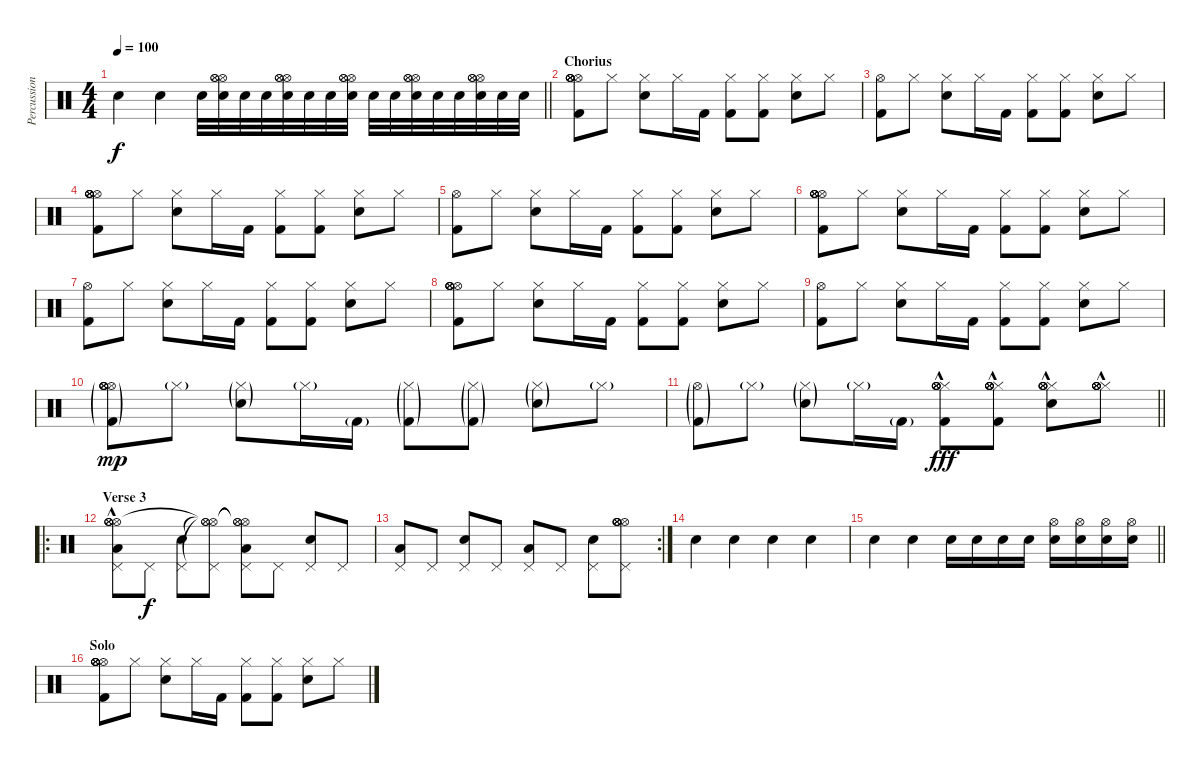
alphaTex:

\track ("Percussion" "Percussion") {instrument percussion}
\staff {score}
\articulation defaults
\ts (4 4)
\tempo 100
\clef neutral
\barLineRight lightlight
\ks c "Electric Snare (hit)".4{dy f} "Electric Snare (hit)".4 "Electric Snare (hit)".32
("Hi-Hat (open)" "Hi-Hat (open)" "Hi-Hat (open)" "Electric Snare (hit)").32 "Electric Snare (hit)".32 "Electric Snare (hit)".32 ("Hi-Hat (open)" "Hi-Hat (open)" "Hi-Hat (open)" "Electric Snare (hit)").32 "Electric Snare (hit)".32 "Electric Snare (hit)".32 ("Hi-Hat (open)" "Hi-Hat (open)" "Hi-Hat (open)" "Electric Snare (hit)").32 "Electric Snare (hit)".32 "Electric Snare (hit)".32 ("Hi-Hat (open)" "Hi-Hat (open)" "Hi-Hat (open)" "Electric Snare (hit)").32 "Electric Snare (hit)".32 "Electric Snare (hit)".32 ("Hi-Hat (open)" "Hi-Hat (open)" "Hi-Hat (open)" "Electric Snare (hit)").32 "Electric Snare (hit)".32 "Electric Snare (hit)".32 |
\section ("" "Chorius")
("Hi-Hat (open)" "Kick (hit) 2" "Hi-Hat (open)" "Hi-Hat (open)" "Hi-Hat (open)" "Hi-Hat (open)").8 "Hi-Hat (closed)".8 ("Hi-Hat (closed)" "Snare (hit) 2").8 "Hi-Hat (closed)".16 "Kick (hit) 2".16 ("Hi-Hat (closed)" "Kick (hit) 2").8 ("Hi-Hat (closed)" "Kick (hit) 2").8 ("Hi-Hat (closed)" "Snare (hit) 2").8 "Hi-Hat (closed)".8 |
("Hi-Hat (open)" "Kick (hit) 2").8 "Hi-Hat (closed)".8 ("Hi-Hat (closed)" "Snare (hit) 2").8 "Hi-Hat (closed)".16 "Kick (hit) 2".16 ("Hi-Hat (closed)" "Kick (hit) 2").8 ("Hi-Hat (closed)" "Kick (hit) 2").8 ("Hi-Hat (closed)" "Snare (hit) 2").8 "Hi-Hat (closed)".8 |
("Hi-Hat (open)" "Kick (hit) 2" "Hi-Hat (open)" "Hi-Hat (open)" "Hi-Hat (open)" "Hi-Hat (open)").8 "Hi-Hat (closed)".8 ("Hi-Hat (closed)" "Snare (hit) 2").8 "Hi-Hat (closed)".16 "Kick (hit) 2".16 ("Hi-Hat (closed)" "Kick (hit) 2").8 ("Hi-Hat (closed)" "Kick (hit) 2").8 ("Hi-Hat (closed)" "Snare (hit) 2").8 "Hi-Hat (closed)".8 |
("Hi-Hat (open)" "Kick (hit) 2").8 "Hi-Hat (closed)".8 ("Hi-Hat (closed)" "Snare (hit) 2").8 "Hi-Hat (closed)".16 "Kick (hit) 2".16 ("Hi-Hat (closed)" "Kick (hit) 2").8 ("Hi-Hat (closed)" "Kick (hit) 2").8 ("Hi-Hat (closed)" "Snare (hit) 2").8 "Hi-Hat (closed)".8 |
("Hi-Hat (open)" "Kick (hit) 2" "Hi-Hat (open)" "Hi-Hat (open)" "Hi-Hat (open)" "Hi-Hat (open)").8 "Hi-Hat (closed)".8 ("Hi-Hat (closed)" "Snare (hit) 2").8 "Hi-Hat (closed)".16 "Kick (hit) 2".16 ("Hi-Hat (closed)" "Kick (hit) 2").8 ("Hi-Hat (closed)" "Kick (hit) 2").8 ("Hi-Hat (closed)" "Snare (hit) 2").8 "Hi-Hat (closed)".8 |
("Hi-Hat (open)" "Kick (hit) 2").8 "Hi-Hat (closed)".8 ("Hi-Hat (closed)" "Snare (hit) 2").8 "Hi-Hat (closed)".16 "Kick (hit) 2".16 ("Hi-Hat (closed)" "Kick (hit) 2").8 ("Hi-Hat (closed)" "Kick (hit) 2").8 ("Hi-Hat (closed)" "Snare (hit) 2").8 "Hi-Hat (closed)".8 |
("Hi-Hat (open)" "Kick (hit) 2" "Hi-Hat (open)" "Hi-Hat (open)" "Hi-Hat (open)" "Hi-Hat (open)").8 "Hi-Hat (closed)".8 ("Hi-Hat (closed)" "Snare (hit) 2").8 "Hi-Hat (closed)".16 "Kick (hit) 2".16 ("Hi-Hat (closed)" "Kick (hit) 2").8 ("Hi-Hat (closed)" "Kick (hit) 2").8 ("Hi-Hat (closed)" "Snare (hit) 2").8 "Hi-Hat (closed)".8 |
("Hi-Hat (open)" "Kick (hit) 2").8 "Hi-Hat (closed)".8 ("Hi-Hat (closed)" "Snare (hit) 2").8 "Hi-Hat (closed)".16 "Kick (hit) 2".16 ("Hi-Hat (closed)" "Kick (hit) 2").8 ("Hi-Hat (closed)" "Kick (hit) 2").8 ("Hi-Hat (closed)" "Snare (hit) 2").8 "Hi-Hat (closed)".8 |
("Hi-Hat (open)"{g} "Kick (hit) 2"{g} "Hi-Hat (open)"{g} "Hi-Hat (open)"{g} "Hi-Hat (open)"{g} "Hi-Hat (open)"{g}).8{dy mp} "Hi-Hat (closed)"{g}.8 ("Hi-Hat (closed)"{g} "Snare (hit) 2"{g}).8 "Hi-Hat (closed)"{g}.16 "Kick (hit) 2"{g}.16 ("Hi-Hat (closed)"{g} "Kick (hit) 2"{g}).8 ("Hi-Hat (closed)"{g} "Kick (hit) 2"{g}).8 ("Hi-Hat (closed)"{g} "Snare (hit) 2"{g}).8 "Hi-Hat (closed)"{g}.8 |
\barLineRight lightlight
("Hi-Hat (open)"{g} "Kick (hit) 2"{g}).8 "Hi-Hat (closed)"{g}.8 ("Hi-Hat (closed)"{g} "Snare (hit) 2"{g}).8 "Hi-Hat (closed)"{g}.16 "Kick (hit) 2"{g}.16 ("Hi-Hat (closed)" "Kick (hit) 2" "Hi-Hat (open)"{hac} "Hi-Hat (open)"{hac} "Hi-Hat (open)"{hac} "Hi-Hat (open)"{hac}).8{dy fff} ("Hi-Hat (closed)" "Kick (hit) 2" "Hi-Hat (open)"{hac} "Hi-Hat (open)"{hac} "Hi-Hat (open)"{hac} "Hi-Hat (open)"{hac}).8 ("Hi-Hat (closed)" "Snare (hit) 2" "Hi-Hat (open)"{hac} "Hi-Hat (open)"{hac} "Hi-Hat (open)"{hac} "Hi-Hat (open)"{hac}).8 ("Hi-Hat (closed)" "Hi-Hat (open)"{hac} "Hi-Hat (open)"{hac} "Hi-Hat (open)"{hac} "Hi-Hat (open)"{hac}).8 |
\ro
\section ("" "Verse 3")
("Hi-Hat (open)"{hac} "Hi-Hat (open)"{hac} "Hi-Hat (open)"{hac} "Pedal Hi-Hat (hit)" "Hi-Hat (open)" "Low Floor Tom (hit)").8 "Pedal Hi-Hat (hit)".8{dy f} ("Pedal Hi-Hat (hit)" "Electric Snare (hit)").8 ("Hi-Hat (open)"{t} "Hi-Hat (open)"{t} "Hi-Hat (open)"{t} "Pedal Hi-Hat (hit)").8 ("Hi-Hat (open)"{t} "Hi-Hat (open)"{t} "Hi-Hat (open)"{t} "Pedal Hi-Hat (hit)" "Low Floor Tom (hit)").8 "Pedal Hi-Hat (hit)".8 ("Pedal Hi-Hat (hit)" "Electric Snare (hit)").8 "Pedal Hi-Hat (hit)".8 |
\rc 2
("Pedal Hi-Hat (hit)" "Low Floor Tom (hit)").8 "Pedal Hi-Hat (hit)".8 ("Pedal Hi-Hat (hit)" "Electric Snare (hit)").8 "Pedal Hi-Hat (hit)".8 ("Pedal Hi-Hat (hit)" "Low Floor Tom (hit)").8 "Pedal Hi-Hat (hit)".8 ("Pedal Hi-Hat (hit)" "Electric Snare (hit)").8 ("Hi-Hat (open)" "Hi-Hat (open)" "Hi-Hat (open)" "Pedal Hi-Hat (hit)" "Hi-Hat (open)" "Hi-Hat (open)").8 |
"Electric Snare (hit)".4 "Electric Snare (hit)".4 "Electric Snare (hit)".4 "Electric Snare (hit)".4 |
\barLineRight lightlight "Electric Snare (hit)".4 "Electric Snare (hit)".4 "Electric Snare (hit)".16 "Electric Snare (hit)".16 "Electric Snare (hit)".16 "Electric Snare (hit)".16
("Hi-Hat (open)" "Electric Snare (hit)").16 ("Hi-Hat (open)" "Electric Snare (hit)").16 ("Hi-Hat (open)" "Electric Snare (hit)").16 ("Hi-Hat (open)" "Electric Snare (hit)").16 |
\section ("" "Solo")
("Hi-Hat (open)" "Kick (hit) 2" "Hi-Hat (open)" "Hi-Hat (open)" "Hi-Hat (open)" "Hi-Hat (open)").8 "Hi-Hat (closed)".8 ("Hi-Hat (closed)" "Snare (hit) 2").8 "Hi-Hat (closed)".16 "Kick (hit) 2".16 ("Hi-Hat (closed)" "Kick (hit) 2").8 ("Hi-Hat (closed)" "Kick (hit) 2").8 ("Hi-Hat (closed)" "Snare (hit) 2").8 "Hi-Hat (closed)".8
